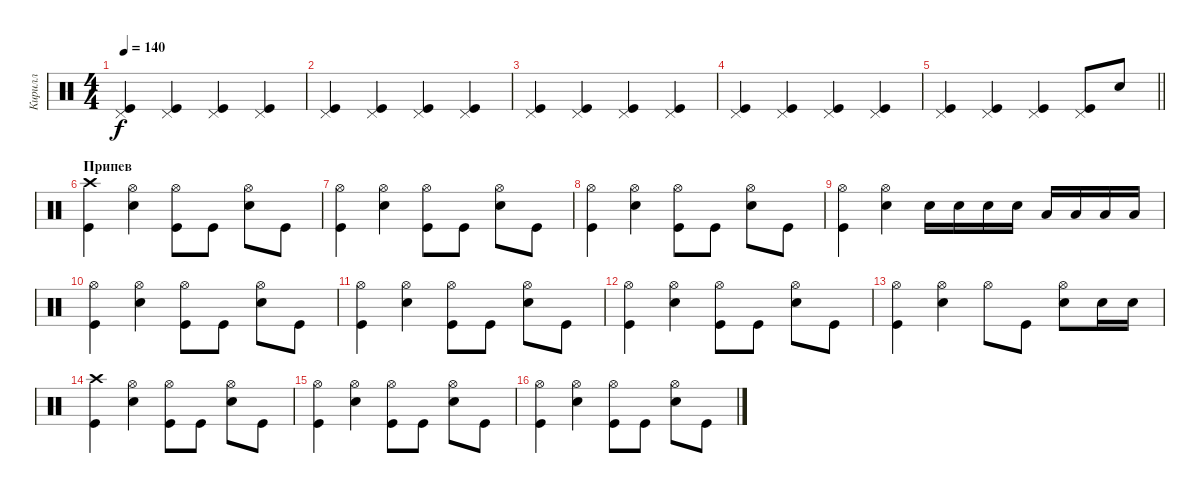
\track ("Кирилл" "Кирилл") {instrument percussion}
\staff {score}
\articulation defaults
\ts (4 4)
\tempo 140
\clef neutral
\ks c
("Pedal Hi-Hat (hit)" "Kick (hit)").4{dy f} ("Pedal Hi-Hat (hit)" "Kick (hit)").4 ("Pedal Hi-Hat (hit)" "Kick (hit)").4 ("Pedal Hi-Hat (hit)" "Kick (hit)").4 |
("Pedal Hi-Hat (hit)" "Kick (hit)").4 ("Pedal Hi-Hat (hit)" "Kick (hit)").4 ("Pedal Hi-Hat (hit)" "Kick (hit)").4 ("Pedal Hi-Hat (hit)" "Kick (hit)").4 |
("Pedal Hi-Hat (hit)" "Kick (hit)").4 ("Pedal Hi-Hat (hit)" "Kick (hit)").4 ("Pedal Hi-Hat (hit)" "Kick (hit)").4 ("Pedal Hi-Hat (hit)" "Kick (hit)").4 |
("Pedal Hi-Hat (hit)" "Kick (hit)").4 ("Pedal Hi-Hat (hit)" "Kick (hit)").4 ("Pedal Hi-Hat (hit)" "Kick (hit)").4 ("Pedal Hi-Hat (hit)" "Kick (hit)").4 |
\barLineRight lightlight
("Pedal Hi-Hat (hit)" "Kick (hit)").4 ("Pedal Hi-Hat (hit)" "Kick (hit)").4 ("Pedal Hi-Hat (hit)" "Kick (hit)").4 ("Pedal Hi-Hat (hit)" "Kick (hit)").8 "Snare (hit) 2".8 |
\section ("" "Припев")
("Crash high (hit)" "Kick (hit)").4 ("Hi-Hat (open)" "Snare (hit) 2").4 ("Hi-Hat (open)" "Kick (hit)").8 "Kick (hit)".8 ("Hi-Hat (open)" "Snare (hit) 2").8 "Kick (hit)".8 |
("Hi-Hat (open)" "Kick (hit)").4 ("Hi-Hat (open)" "Snare (hit) 2").4 ("Hi-Hat (open)" "Kick (hit)").8 "Kick (hit)".8 ("Hi-Hat (open)" "Snare (hit) 2").8 "Kick (hit)".8 |
("Hi-Hat (open)" "Kick (hit)").4 ("Hi-Hat (open)" "Snare (hit) 2").4 ("Hi-Hat (open)" "Kick (hit)").8 "Kick (hit)".8 ("Hi-Hat (open)" "Snare (hit) 2").8 "Kick (hit)".8 |
("Hi-Hat (open)" "Kick (hit)").4 ("Hi-Hat (open)" "Snare (hit) 2").4 "Snare (hit) 2".16 "Snare (hit) 2".16 "Snare (hit) 2".16 "Snare (hit) 2".16 "Low Tom (hit)".16 "Low Tom (hit)".16 "Low Tom (hit)".16 "Low Tom (hit)".16 |
("Hi-Hat (open)" "Kick (hit)").4 ("Hi-Hat (open)" "Snare (hit) 2").4 ("Hi-Hat (open)" "Kick (hit)").8 "Kick (hit)".8 ("Hi-Hat (open)" "Snare (hit) 2").8 "Kick (hit)".8 |
("Hi-Hat (open)" "Kick (hit)").4 ("Hi-Hat (open)" "Snare (hit) 2").4 ("Hi-Hat (open)" "Kick (hit)").8 "Kick (hit)".8 ("Hi-Hat (open)" "Snare (hit) 2").8 "Kick (hit)".8 |
("Hi-Hat (open)" "Kick (hit)").4 ("Hi-Hat (open)" "Snare (hit) 2").4 ("Hi-Hat (open)" "Kick (hit)").8 "Kick (hit)".8 ("Hi-Hat (open)" "Snare (hit) 2").8 "Kick (hit)".8 |
("Hi-Hat (open)" "Kick (hit)").4 ("Hi-Hat (open)" "Snare (hit) 2").4 "Hi-Hat (open)".8 "Kick (hit)".8 ("Hi-Hat (open)" "Snare (hit) 2").8 "Snare (hit) 2".16 "Snare (hit) 2".16 |
("Crash high (hit)" "Kick (hit)").4 ("Hi-Hat (open)" "Snare (hit) 2").4 ("Hi-Hat (open)" "Kick (hit)").8 "Kick (hit)".8 ("Hi-Hat (open)" "Snare (hit) 2").8 "Kick (hit)".8 |
("Hi-Hat (open)" "Kick (hit)").4 ("Hi-Hat (open)" "Snare (hit) 2").4 ("Hi-Hat (open)" "Kick (hit)").8 "Kick (hit)".8 ("Hi-Hat (open)" "Snare (hit) 2").8 "Kick (hit)".8 |
("Hi-Hat (open)" "Kick (hit)").4 ("Hi-Hat (open)" "Snare (hit) 2").4 ("Hi-Hat (open)" "Kick (hit)").8 "Kick (hit)".8 ("Hi-Hat (open)" "Snare (hit) 2").8 "Kick (hit)".8
